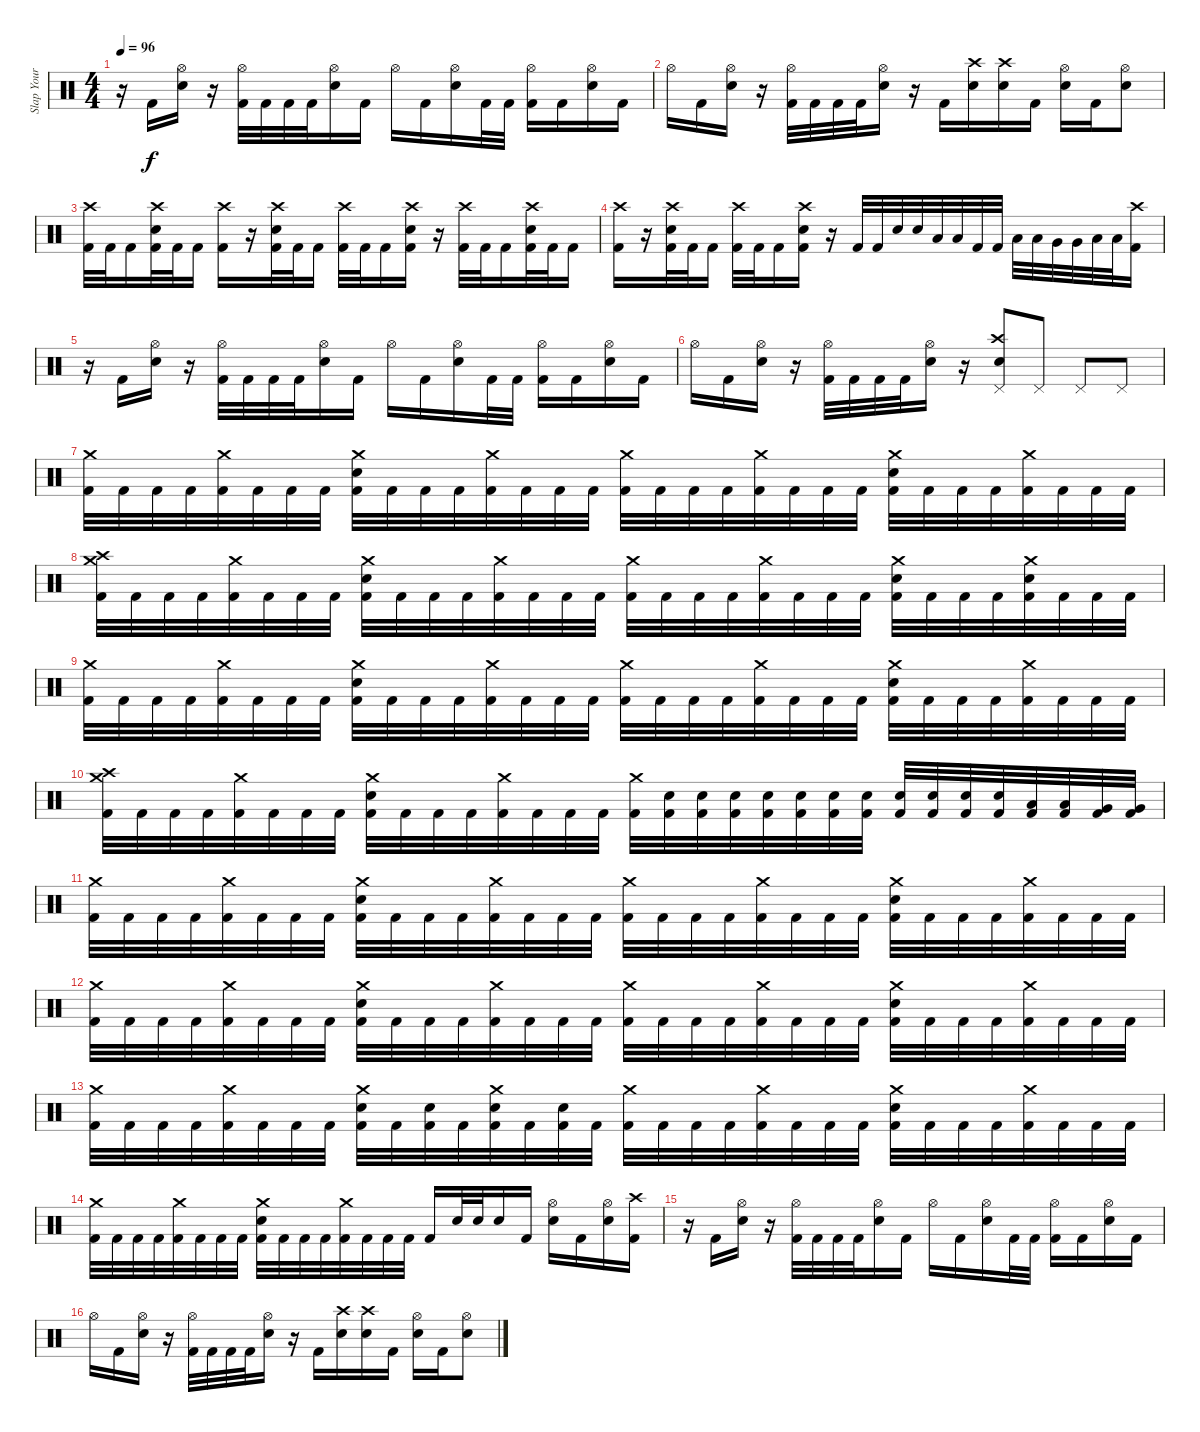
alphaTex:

\track ("Slap Your Sticks" "Slap Your ") {instrument percussion}
\staff {score}
\articulation defaults
\ts (4 4)
\tempo 96
\clef neutral
\ks c
r.16{dy f} "Kick (hit) 2".16 ("Hi-Hat (open)" "Snare (hit) 2").16 r.16 ("Hi-Hat (open)" "Kick (hit) 2").32 "Kick (hit) 2".32 "Kick (hit) 2".32 "Kick (hit) 2".32 ("Hi-Hat (open)" "Snare (hit) 2").16 "Kick (hit) 2".16 "Hi-Hat (open)".16 "Kick (hit) 2".16 ("Hi-Hat (open)" "Snare (hit) 2").16 "Kick (hit) 2".32 "Kick (hit) 2".32 ("Hi-Hat (open)" "Kick (hit) 2").16 "Kick (hit) 2".16 ("Hi-Hat (open)" "Snare (hit) 2").16 "Kick (hit) 2".16 |
"Hi-Hat (open)".16 "Kick (hit) 2".16 ("Hi-Hat (open)" "Snare (hit) 2").16 r.16 ("Hi-Hat (open)" "Kick (hit) 2").32 "Kick (hit) 2".32 "Kick (hit) 2".32 "Kick (hit) 2".32 ("Hi-Hat (open)" "Snare (hit) 2").16 r.16 "Kick (hit) 2".16 ("Crash high (hit)" "Snare (hit) 2").16 ("Crash high (hit)" "Snare (hit) 2").16 "Kick (hit) 2".16 ("Hi-Hat (open)" "Snare (hit) 2").16 "Kick (hit) 2".16 ("Hi-Hat (open)" "Snare (hit) 2").8 |
("Crash high (hit)" "Kick (hit) 2").32 "Kick (hit) 2".32 "Kick (hit) 2".16 ("Crash high (hit)" "Snare (hit) 2" "Kick (hit) 2").32 "Kick (hit) 2".32 "Kick (hit) 2".16 ("Crash high (hit)" "Kick (hit) 2").16 r.16 ("Crash high (hit)" "Snare (hit) 2" "Kick (hit) 2").32 "Kick (hit) 2".32 "Kick (hit) 2".16 ("Crash high (hit)" "Kick (hit) 2").32 "Kick (hit) 2".32 "Kick (hit) 2".16 ("Crash high (hit)" "Snare (hit) 2" "Kick (hit) 2").16 r.16 ("Crash high (hit)" "Kick (hit) 2").32 "Kick (hit) 2".32 "Kick (hit) 2".16 ("Crash high (hit)" "Snare (hit) 2" "Kick (hit) 2").32 "Kick (hit) 2".32 "Kick (hit) 2".16 |
("Crash high (hit)" "Kick (hit) 2").16 r.16 ("Crash high (hit)" "Snare (hit) 2" "Kick (hit) 2").32 "Kick (hit) 2".32 "Kick (hit) 2".16 ("Crash high (hit)" "Kick (hit) 2").32 "Kick (hit) 2".32 "Kick (hit) 2".16 ("Crash high (hit)" "Snare (hit) 2" "Kick (hit) 2").16 r.16 "Kick (hit) 2".32 "Kick (hit) 2".32 "Snare (hit) 2".32 "Snare (hit) 2".32 "Low Tom (hit)".32 "Low Tom (hit)".32 "Kick (hit) 2".32 "Kick (hit) 2".32 "Low Tom (hit)".32 "Low Tom (hit)".32 "Very Low Tom (hit)".32 "Very Low Tom (hit)".32 "Low Floor Tom (hit)".32 "Low Floor Tom (hit)".32 ("Crash high (hit)" "Kick (hit) 2").16 |
r.16 "Kick (hit) 2".16 ("Hi-Hat (open)" "Snare (hit) 2").16 r.16 ("Hi-Hat (open)" "Kick (hit) 2").32 "Kick (hit) 2".32 "Kick (hit) 2".32 "Kick (hit) 2".32 ("Hi-Hat (open)" "Snare (hit) 2").16 "Kick (hit) 2".16 "Hi-Hat (open)".16 "Kick (hit) 2".16 ("Hi-Hat (open)" "Snare (hit) 2").16 "Kick (hit) 2".32 "Kick (hit) 2".32 ("Hi-Hat (open)" "Kick (hit) 2").16 "Kick (hit) 2".16 ("Hi-Hat (open)" "Snare (hit) 2").16 "Kick (hit) 2".16 |
"Hi-Hat (open)".16 "Kick (hit) 2".16 ("Hi-Hat (open)" "Snare (hit) 2").16 r.16 ("Hi-Hat (open)" "Kick (hit) 2").32 "Kick (hit) 2".32 "Kick (hit) 2".32 "Kick (hit) 2".32 ("Hi-Hat (open)" "Snare (hit) 2").16 r.16 ("Crash high (hit)" "Pedal Hi-Hat (hit)" "Snare (hit) 2").8 "Pedal Hi-Hat (hit)".8 "Pedal Hi-Hat (hit)".8 "Pedal Hi-Hat (hit)".8 |
("Crash medium (hit)" "Kick (hit) 2").32 "Kick (hit) 2".32 "Kick (hit) 2".32 "Kick (hit) 2".32 ("Crash medium (hit)" "Kick (hit) 2").32 "Kick (hit) 2".32 "Kick (hit) 2".32 "Kick (hit) 2".32 ("Crash medium (hit)" "Snare (hit) 2" "Kick (hit) 2").32 "Kick (hit) 2".32 "Kick (hit) 2".32 "Kick (hit) 2".32 ("Crash medium (hit)" "Kick (hit) 2").32 "Kick (hit) 2".32 "Kick (hit) 2".32 "Kick (hit) 2".32 ("Crash medium (hit)" "Kick (hit) 2").32 "Kick (hit) 2".32 "Kick (hit) 2".32 "Kick (hit) 2".32 ("Crash medium (hit)" "Kick (hit) 2").32 "Kick (hit) 2".32 "Kick (hit) 2".32 "Kick (hit) 2".32 ("Crash medium (hit)" "Snare (hit) 2" "Kick (hit) 2").32 "Kick (hit) 2".32 "Kick (hit) 2".32 "Kick (hit) 2".32 ("Crash medium (hit)" "Kick (hit) 2").32 "Kick (hit) 2".32 "Kick (hit) 2".32 "Kick (hit) 2".32 |
("Crash medium (hit)" "Crash high (hit)" "Kick (hit) 2").32 "Kick (hit) 2".32 "Kick (hit) 2".32 "Kick (hit) 2".32 ("Crash medium (hit)" "Kick (hit) 2").32 "Kick (hit) 2".32 "Kick (hit) 2".32 "Kick (hit) 2".32 ("Crash medium (hit)" "Snare (hit) 2" "Kick (hit) 2").32 "Kick (hit) 2".32 "Kick (hit) 2".32 "Kick (hit) 2".32 ("Crash medium (hit)" "Kick (hit) 2").32 "Kick (hit) 2".32 "Kick (hit) 2".32 "Kick (hit) 2".32 ("Crash medium (hit)" "Kick (hit) 2").32 "Kick (hit) 2".32 "Kick (hit) 2".32 "Kick (hit) 2".32 ("Crash medium (hit)" "Kick (hit) 2").32 "Kick (hit) 2".32 "Kick (hit) 2".32 "Kick (hit) 2".32 ("Crash medium (hit)" "Snare (hit) 2" "Kick (hit) 2").32 "Kick (hit) 2".32 "Kick (hit) 2".32 "Kick (hit) 2".32 ("Crash medium (hit)" "Snare (hit) 2" "Kick (hit) 2").32 "Kick (hit) 2".32 "Kick (hit) 2".32 "Kick (hit) 2".32 |
("Crash medium (hit)" "Kick (hit) 2").32 "Kick (hit) 2".32 "Kick (hit) 2".32 "Kick (hit) 2".32 ("Crash medium (hit)" "Kick (hit) 2").32 "Kick (hit) 2".32 "Kick (hit) 2".32 "Kick (hit) 2".32 ("Crash medium (hit)" "Snare (hit) 2" "Kick (hit) 2").32 "Kick (hit) 2".32 "Kick (hit) 2".32 "Kick (hit) 2".32 ("Crash medium (hit)" "Kick (hit) 2").32 "Kick (hit) 2".32 "Kick (hit) 2".32 "Kick (hit) 2".32 ("Crash medium (hit)" "Kick (hit) 2").32 "Kick (hit) 2".32 "Kick (hit) 2".32 "Kick (hit) 2".32 ("Crash medium (hit)" "Kick (hit) 2").32 "Kick (hit) 2".32 "Kick (hit) 2".32 "Kick (hit) 2".32 ("Crash medium (hit)" "Snare (hit) 2" "Kick (hit) 2").32 "Kick (hit) 2".32 "Kick (hit) 2".32 "Kick (hit) 2".32 ("Crash medium (hit)" "Kick (hit) 2").32 "Kick (hit) 2".32 "Kick (hit) 2".32 "Kick (hit) 2".32 |
("Crash medium (hit)" "Crash high (hit)" "Kick (hit) 2").32 "Kick (hit) 2".32 "Kick (hit) 2".32 "Kick (hit) 2".32 ("Crash medium (hit)" "Kick (hit) 2").32 "Kick (hit) 2".32 "Kick (hit) 2".32 "Kick (hit) 2".32 ("Crash medium (hit)" "Snare (hit) 2" "Kick (hit) 2").32 "Kick (hit) 2".32 "Kick (hit) 2".32 "Kick (hit) 2".32 ("Crash medium (hit)" "Kick (hit) 2").32 "Kick (hit) 2".32 "Kick (hit) 2".32 "Kick (hit) 2".32 ("Crash medium (hit)" "Kick (hit) 2").32 ("Snare (hit) 2" "Kick (hit) 2").32 ("Snare (hit) 2" "Kick (hit) 2").32 ("Snare (hit) 2" "Kick (hit) 2").32 ("Snare (hit) 2" "Kick (hit) 2").32 ("Snare (hit) 2" "Kick (hit) 2").32 ("Snare (hit) 2" "Kick (hit) 2").32 ("Snare (hit) 2" "Kick (hit) 2").32 ("Snare (hit) 2" "Kick (hit) 2").32 ("Snare (hit) 2" "Kick (hit) 2").32 ("Snare (hit) 2" "Kick (hit) 2").32 ("Snare (hit) 2" "Kick (hit) 2").32 ("Low Tom (hit)" "Kick (hit) 2").32 ("Low Tom (hit)" "Kick (hit) 2").32 ("Very Low Tom (hit)" "Kick (hit) 2").32 ("Very Low Tom (hit)" "Kick (hit) 2").32 |
("Crash medium (hit)" "Kick (hit) 2").32 "Kick (hit) 2".32 "Kick (hit) 2".32 "Kick (hit) 2".32 ("Crash medium (hit)" "Kick (hit) 2").32 "Kick (hit) 2".32 "Kick (hit) 2".32 "Kick (hit) 2".32 ("Crash medium (hit)" "Snare (hit) 2" "Kick (hit) 2").32 "Kick (hit) 2".32 "Kick (hit) 2".32 "Kick (hit) 2".32 ("Crash medium (hit)" "Kick (hit) 2").32 "Kick (hit) 2".32 "Kick (hit) 2".32 "Kick (hit) 2".32 ("Crash medium (hit)" "Kick (hit) 2").32 "Kick (hit) 2".32 "Kick (hit) 2".32 "Kick (hit) 2".32 ("Crash medium (hit)" "Kick (hit) 2").32 "Kick (hit) 2".32 "Kick (hit) 2".32 "Kick (hit) 2".32 ("Crash medium (hit)" "Snare (hit) 2" "Kick (hit) 2").32 "Kick (hit) 2".32 "Kick (hit) 2".32 "Kick (hit) 2".32 ("Crash medium (hit)" "Kick (hit) 2").32 "Kick (hit) 2".32 "Kick (hit) 2".32 "Kick (hit) 2".32 |
("Crash medium (hit)" "Kick (hit) 2").32 "Kick (hit) 2".32 "Kick (hit) 2".32 "Kick (hit) 2".32 ("Crash medium (hit)" "Kick (hit) 2").32 "Kick (hit) 2".32 "Kick (hit) 2".32 "Kick (hit) 2".32 ("Crash medium (hit)" "Snare (hit) 2" "Kick (hit) 2").32 "Kick (hit) 2".32 "Kick (hit) 2".32 "Kick (hit) 2".32 ("Crash medium (hit)" "Kick (hit) 2").32 "Kick (hit) 2".32 "Kick (hit) 2".32 "Kick (hit) 2".32 ("Crash medium (hit)" "Kick (hit) 2").32 "Kick (hit) 2".32 "Kick (hit) 2".32 "Kick (hit) 2".32 ("Crash medium (hit)" "Kick (hit) 2").32 "Kick (hit) 2".32 "Kick (hit) 2".32 "Kick (hit) 2".32 ("Crash medium (hit)" "Snare (hit) 2" "Kick (hit) 2").32 "Kick (hit) 2".32 "Kick (hit) 2".32 "Kick (hit) 2".32 ("Crash medium (hit)" "Kick (hit) 2").32 "Kick (hit) 2".32 "Kick (hit) 2".32 "Kick (hit) 2".32 |
("Crash medium (hit)" "Kick (hit) 2").32 "Kick (hit) 2".32 "Kick (hit) 2".32 "Kick (hit) 2".32 ("Crash medium (hit)" "Kick (hit) 2").32 "Kick (hit) 2".32 "Kick (hit) 2".32 "Kick (hit) 2".32 ("Crash medium (hit)" "Snare (hit) 2" "Kick (hit) 2").32 "Kick (hit) 2".32 ("Snare (hit) 2" "Kick (hit) 2").32 "Kick (hit) 2".32 ("Crash medium (hit)" "Snare (hit) 2" "Kick (hit) 2").32 "Kick (hit) 2".32 ("Snare (hit) 2" "Kick (hit) 2").32 "Kick (hit) 2".32 ("Crash medium (hit)" "Kick (hit) 2").32 "Kick (hit) 2".32 "Kick (hit) 2".32 "Kick (hit) 2".32 ("Crash medium (hit)" "Kick (hit) 2").32 "Kick (hit) 2".32 "Kick (hit) 2".32 "Kick (hit) 2".32 ("Crash medium (hit)" "Snare (hit) 2" "Kick (hit) 2").32 "Kick (hit) 2".32 "Kick (hit) 2".32 "Kick (hit) 2".32 ("Crash medium (hit)" "Kick (hit) 2").32 "Kick (hit) 2".32 "Kick (hit) 2".32 "Kick (hit) 2".32 |
("Crash medium (hit)" "Kick (hit) 2").32 "Kick (hit) 2".32 "Kick (hit) 2".32 "Kick (hit) 2".32 ("Crash medium (hit)" "Kick (hit) 2").32 "Kick (hit) 2".32 "Kick (hit) 2".32 "Kick (hit) 2".32 ("Crash medium (hit)" "Snare (hit) 2" "Kick (hit) 2").32 "Kick (hit) 2".32 "Kick (hit) 2".32 "Kick (hit) 2".32 ("Crash medium (hit)" "Kick (hit) 2").32 "Kick (hit) 2".32 "Kick (hit) 2".32 "Kick (hit) 2".32 "Kick (hit) 2".16 "Snare (hit) 2".32 "Snare (hit) 2".32 "Snare (hit) 2".16 "Kick (hit) 2".16 ("Hi-Hat (open)" "Snare (hit) 2").16 "Kick (hit) 2".16 ("Hi-Hat (open)" "Snare (hit) 2").16 ("Crash high (hit)" "Kick (hit) 2").16 |
r.16 "Kick (hit) 2".16 ("Hi-Hat (open)" "Snare (hit) 2").16 r.16 ("Hi-Hat (open)" "Kick (hit) 2").32 "Kick (hit) 2".32 "Kick (hit) 2".32 "Kick (hit) 2".32 ("Hi-Hat (open)" "Snare (hit) 2").16 "Kick (hit) 2".16 "Hi-Hat (open)".16 "Kick (hit) 2".16 ("Hi-Hat (open)" "Snare (hit) 2").16 "Kick (hit) 2".32 "Kick (hit) 2".32 ("Hi-Hat (open)" "Kick (hit) 2").16 "Kick (hit) 2".16 ("Hi-Hat (open)" "Snare (hit) 2").16 "Kick (hit) 2".16 |
"Hi-Hat (open)".16 "Kick (hit) 2".16 ("Hi-Hat (open)" "Snare (hit) 2").16 r.16 ("Hi-Hat (open)" "Kick (hit) 2").32 "Kick (hit) 2".32 "Kick (hit) 2".32 "Kick (hit) 2".32 ("Hi-Hat (open)" "Snare (hit) 2").16 r.16 "Kick (hit) 2".16 ("Crash high (hit)" "Snare (hit) 2").16 ("Crash high (hit)" "Snare (hit) 2").16 "Kick (hit) 2".16 ("Hi-Hat (open)" "Snare (hit) 2").16 "Kick (hit) 2".16 ("Hi-Hat (open)" "Snare (hit) 2").8
